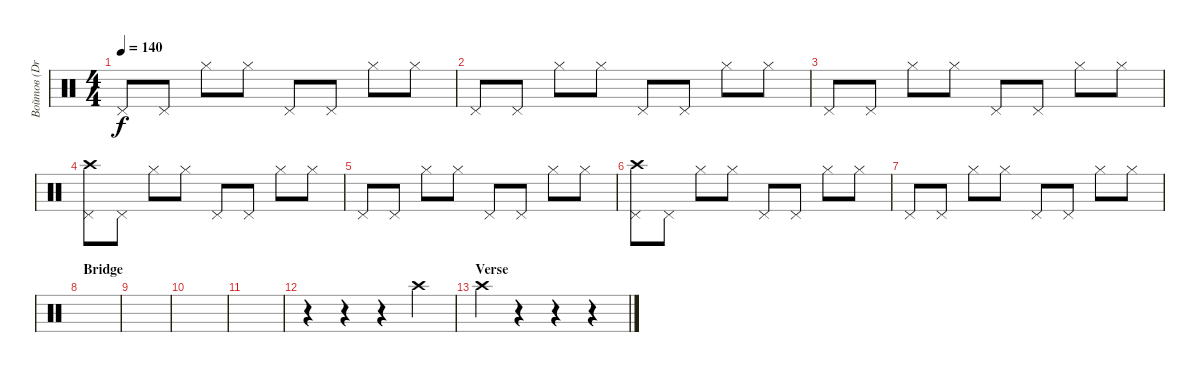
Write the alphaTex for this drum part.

\track ("Войтов (Drums)" "Войтов (Dr") {instrument percussion}
\staff {score}
\articulation defaults
\ts (4 4)
\tempo 140
\clef neutral
\ks c "Pedal Hi-Hat (hit)".8{dy f} "Pedal Hi-Hat (hit)".8 "Hi-Hat (closed)".8 "Hi-Hat (closed)".8 "Pedal Hi-Hat (hit)".8 "Pedal Hi-Hat (hit)".8 "Hi-Hat (closed)".8 "Hi-Hat (closed)".8
|
"Pedal Hi-Hat (hit)".8 "Pedal Hi-Hat (hit)".8 "Hi-Hat (closed)".8 "Hi-Hat (closed)".8 "Pedal Hi-Hat (hit)".8 "Pedal Hi-Hat (hit)".8 "Hi-Hat (closed)".8 "Hi-Hat (closed)".8 |
"Pedal Hi-Hat (hit)".8 "Pedal Hi-Hat (hit)".8 "Hi-Hat (closed)".8 "Hi-Hat (closed)".8 "Pedal Hi-Hat (hit)".8 "Pedal Hi-Hat (hit)".8 "Hi-Hat (closed)".8 "Hi-Hat (closed)".8 |
("Pedal Hi-Hat (hit)" "Crash high (hit)").8 "Pedal Hi-Hat (hit)".8 "Hi-Hat (closed)".8 "Hi-Hat (closed)".8 "Pedal Hi-Hat (hit)".8 "Pedal Hi-Hat (hit)".8 "Hi-Hat (closed)".8 "Hi-Hat (closed)".8 |
"Pedal Hi-Hat (hit)".8 "Pedal Hi-Hat (hit)".8 "Hi-Hat (closed)".8 "Hi-Hat (closed)".8 "Pedal Hi-Hat (hit)".8 "Pedal Hi-Hat (hit)".8 "Hi-Hat (closed)".8 "Hi-Hat (closed)".8 |
("Pedal Hi-Hat (hit)" "Crash high (hit)").8 "Pedal Hi-Hat (hit)".8 "Hi-Hat (closed)".8 "Hi-Hat (closed)".8 "Pedal Hi-Hat (hit)".8 "Pedal Hi-Hat (hit)".8 "Hi-Hat (closed)".8 "Hi-Hat (closed)".8 |
"Pedal Hi-Hat (hit)".8 "Pedal Hi-Hat (hit)".8 "Hi-Hat (closed)".8 "Hi-Hat (closed)".8 "Pedal Hi-Hat (hit)".8 "Pedal Hi-Hat (hit)".8 "Hi-Hat (closed)".8 "Hi-Hat (closed)".8 |
\section ("" "Bridge")
|
|
|
|
r.4 r.4 r.4 "Crash high (hit)".4 |
\section ("" "Verse")
"Crash high (hit)".4 r.4 r.4 r.4
